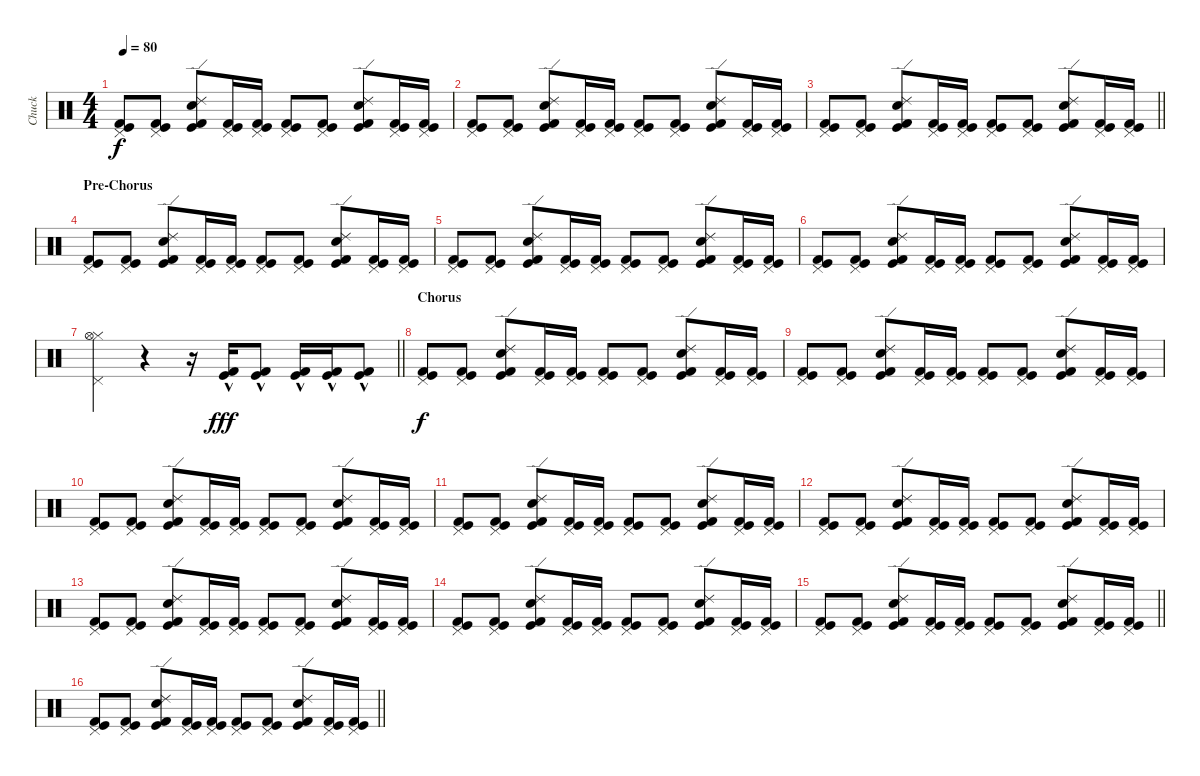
\track ("Chuck" "Chuck") {instrument percussion}
\staff {score}
\articulation defaults
\ts (4 4)
\tempo 80
\clef neutral
\ks c
("Pedal Hi-Hat (hit)" "Kick (hit)" "Kick (hit) 2").8{dy f} ("Pedal Hi-Hat (hit)" "Kick (hit)" "Kick (hit) 2").8 ("Ride (edge) 2" "Kick (hit)" "Kick (hit) 2" "Electric Snare (hit)").8 ("Pedal Hi-Hat (hit)" "Kick (hit)" "Kick (hit) 2").16 ("Pedal Hi-Hat (hit)" "Kick (hit)" "Kick (hit) 2").16 ("Pedal Hi-Hat (hit)" "Kick (hit)" "Kick (hit) 2").8 ("Pedal Hi-Hat (hit)" "Kick (hit)" "Kick (hit) 2").8 ("Ride (edge) 2" "Kick (hit)" "Kick (hit) 2" "Electric Snare (hit)").8 ("Pedal Hi-Hat (hit)" "Kick (hit)" "Kick (hit) 2").16 ("Pedal Hi-Hat (hit)" "Kick (hit)" "Kick (hit) 2").16 |
("Pedal Hi-Hat (hit)" "Kick (hit)" "Kick (hit) 2").8 ("Pedal Hi-Hat (hit)" "Kick (hit)" "Kick (hit) 2").8 ("Ride (edge) 2" "Kick (hit)" "Kick (hit) 2" "Electric Snare (hit)").8 ("Pedal Hi-Hat (hit)" "Kick (hit)" "Kick (hit) 2").16 ("Pedal Hi-Hat (hit)" "Kick (hit)" "Kick (hit) 2").16 ("Pedal Hi-Hat (hit)" "Kick (hit)" "Kick (hit) 2").8 ("Pedal Hi-Hat (hit)" "Kick (hit)" "Kick (hit) 2").8 ("Ride (edge) 2" "Kick (hit)" "Kick (hit) 2" "Electric Snare (hit)").8 ("Pedal Hi-Hat (hit)" "Kick (hit)" "Kick (hit) 2").16 ("Pedal Hi-Hat (hit)" "Kick (hit)" "Kick (hit) 2").16 |
\barLineRight lightlight
("Pedal Hi-Hat (hit)" "Kick (hit)" "Kick (hit) 2").8 ("Pedal Hi-Hat (hit)" "Kick (hit)" "Kick (hit) 2").8 ("Ride (edge) 2" "Kick (hit)" "Kick (hit) 2" "Electric Snare (hit)").8 ("Pedal Hi-Hat (hit)" "Kick (hit)" "Kick (hit) 2").16 ("Pedal Hi-Hat (hit)" "Kick (hit)" "Kick (hit) 2").16 ("Pedal Hi-Hat (hit)" "Kick (hit)" "Kick (hit) 2").8 ("Pedal Hi-Hat (hit)" "Kick (hit)" "Kick (hit) 2").8 ("Ride (edge) 2" "Kick (hit)" "Kick (hit) 2" "Electric Snare (hit)").8 ("Pedal Hi-Hat (hit)" "Kick (hit)" "Kick (hit) 2").16 ("Pedal Hi-Hat (hit)" "Kick (hit)" "Kick (hit) 2").16 |
\section ("" "Pre-Chorus")
("Pedal Hi-Hat (hit)" "Kick (hit)" "Kick (hit) 2").8 ("Pedal Hi-Hat (hit)" "Kick (hit)" "Kick (hit) 2").8 ("Ride (edge) 2" "Kick (hit)" "Kick (hit) 2" "Electric Snare (hit)").8 ("Pedal Hi-Hat (hit)" "Kick (hit)" "Kick (hit) 2").16 ("Pedal Hi-Hat (hit)" "Kick (hit)" "Kick (hit) 2").16 ("Pedal Hi-Hat (hit)" "Kick (hit)" "Kick (hit) 2").8 ("Pedal Hi-Hat (hit)" "Kick (hit)" "Kick (hit) 2").8 ("Ride (edge) 2" "Kick (hit)" "Kick (hit) 2" "Electric Snare (hit)").8 ("Pedal Hi-Hat (hit)" "Kick (hit)" "Kick (hit) 2").16 ("Pedal Hi-Hat (hit)" "Kick (hit)" "Kick (hit) 2").16 |
("Pedal Hi-Hat (hit)" "Kick (hit)" "Kick (hit) 2").8 ("Pedal Hi-Hat (hit)" "Kick (hit)" "Kick (hit) 2").8 ("Ride (edge) 2" "Kick (hit)" "Kick (hit) 2" "Electric Snare (hit)").8 ("Pedal Hi-Hat (hit)" "Kick (hit)" "Kick (hit) 2").16 ("Pedal Hi-Hat (hit)" "Kick (hit)" "Kick (hit) 2").16 ("Pedal Hi-Hat (hit)" "Kick (hit)" "Kick (hit) 2").8 ("Pedal Hi-Hat (hit)" "Kick (hit)" "Kick (hit) 2").8 ("Ride (edge) 2" "Kick (hit)" "Kick (hit) 2" "Electric Snare (hit)").8 ("Pedal Hi-Hat (hit)" "Kick (hit)" "Kick (hit) 2").16 ("Pedal Hi-Hat (hit)" "Kick (hit)" "Kick (hit) 2").16 |
("Pedal Hi-Hat (hit)" "Kick (hit)" "Kick (hit) 2").8 ("Pedal Hi-Hat (hit)" "Kick (hit)" "Kick (hit) 2").8 ("Ride (edge) 2" "Kick (hit)" "Kick (hit) 2" "Electric Snare (hit)").8 ("Pedal Hi-Hat (hit)" "Kick (hit)" "Kick (hit) 2").16 ("Pedal Hi-Hat (hit)" "Kick (hit)" "Kick (hit) 2").16 ("Pedal Hi-Hat (hit)" "Kick (hit)" "Kick (hit) 2").8 ("Pedal Hi-Hat (hit)" "Kick (hit)" "Kick (hit) 2").8 ("Ride (edge) 2" "Kick (hit)" "Kick (hit) 2" "Electric Snare (hit)").8 ("Pedal Hi-Hat (hit)" "Kick (hit)" "Kick (hit) 2").16 ("Pedal Hi-Hat (hit)" "Kick (hit)" "Kick (hit) 2").16 |
\barLineRight lightlight
("Hi-Hat (closed)" "Pedal Hi-Hat (hit)" "Hi-Hat (open)").4 r.4 r.16 ("Kick (hit)"{hac} "Kick (hit) 2"{hac}).16{dy fff} ("Kick (hit)"{hac} "Kick (hit) 2"{hac}).8 ("Kick (hit)"{hac} "Kick (hit) 2"{hac}).16 ("Kick (hit)"{hac} "Kick (hit) 2"{hac}).16 ("Kick (hit)"{hac} "Kick (hit) 2"{hac}).8 |
\section ("" "Chorus")
("Pedal Hi-Hat (hit)" "Kick (hit)" "Kick (hit) 2").8{dy f} ("Pedal Hi-Hat (hit)" "Kick (hit)" "Kick (hit) 2").8 ("Ride (edge) 2" "Kick (hit)" "Kick (hit) 2" "Electric Snare (hit)").8 ("Pedal Hi-Hat (hit)" "Kick (hit)" "Kick (hit) 2").16 ("Pedal Hi-Hat (hit)" "Kick (hit)" "Kick (hit) 2").16 ("Pedal Hi-Hat (hit)" "Kick (hit)" "Kick (hit) 2").8 ("Pedal Hi-Hat (hit)" "Kick (hit)" "Kick (hit) 2").8 ("Ride (edge) 2" "Kick (hit)" "Kick (hit) 2" "Electric Snare (hit)").8 ("Pedal Hi-Hat (hit)" "Kick (hit)" "Kick (hit) 2").16 ("Pedal Hi-Hat (hit)" "Kick (hit)" "Kick (hit) 2").16 |
("Pedal Hi-Hat (hit)" "Kick (hit)" "Kick (hit) 2").8 ("Pedal Hi-Hat (hit)" "Kick (hit)" "Kick (hit) 2").8 ("Ride (edge) 2" "Kick (hit)" "Kick (hit) 2" "Electric Snare (hit)").8 ("Pedal Hi-Hat (hit)" "Kick (hit)" "Kick (hit) 2").16 ("Pedal Hi-Hat (hit)" "Kick (hit)" "Kick (hit) 2").16 ("Pedal Hi-Hat (hit)" "Kick (hit)" "Kick (hit) 2").8 ("Pedal Hi-Hat (hit)" "Kick (hit)" "Kick (hit) 2").8 ("Ride (edge) 2" "Kick (hit)" "Kick (hit) 2" "Electric Snare (hit)").8 ("Pedal Hi-Hat (hit)" "Kick (hit)" "Kick (hit) 2").16 ("Pedal Hi-Hat (hit)" "Kick (hit)" "Kick (hit) 2").16 |
("Pedal Hi-Hat (hit)" "Kick (hit)" "Kick (hit) 2").8 ("Pedal Hi-Hat (hit)" "Kick (hit)" "Kick (hit) 2").8 ("Ride (edge) 2" "Kick (hit)" "Kick (hit) 2" "Electric Snare (hit)").8 ("Pedal Hi-Hat (hit)" "Kick (hit)" "Kick (hit) 2").16 ("Pedal Hi-Hat (hit)" "Kick (hit)" "Kick (hit) 2").16 ("Pedal Hi-Hat (hit)" "Kick (hit)" "Kick (hit) 2").8 ("Pedal Hi-Hat (hit)" "Kick (hit)" "Kick (hit) 2").8 ("Ride (edge) 2" "Kick (hit)" "Kick (hit) 2" "Electric Snare (hit)").8 ("Pedal Hi-Hat (hit)" "Kick (hit)" "Kick (hit) 2").16 ("Pedal Hi-Hat (hit)" "Kick (hit)" "Kick (hit) 2").16 |
("Pedal Hi-Hat (hit)" "Kick (hit)" "Kick (hit) 2").8 ("Pedal Hi-Hat (hit)" "Kick (hit)" "Kick (hit) 2").8 ("Ride (edge) 2" "Kick (hit)" "Kick (hit) 2" "Electric Snare (hit)").8 ("Pedal Hi-Hat (hit)" "Kick (hit)" "Kick (hit) 2").16 ("Pedal Hi-Hat (hit)" "Kick (hit)" "Kick (hit) 2").16 ("Pedal Hi-Hat (hit)" "Kick (hit)" "Kick (hit) 2").8 ("Pedal Hi-Hat (hit)" "Kick (hit)" "Kick (hit) 2").8 ("Ride (edge) 2" "Kick (hit)" "Kick (hit) 2" "Electric Snare (hit)").8 ("Pedal Hi-Hat (hit)" "Kick (hit)" "Kick (hit) 2").16 ("Pedal Hi-Hat (hit)" "Kick (hit)" "Kick (hit) 2").16 |
("Pedal Hi-Hat (hit)" "Kick (hit)" "Kick (hit) 2").8 ("Pedal Hi-Hat (hit)" "Kick (hit)" "Kick (hit) 2").8 ("Ride (edge) 2" "Kick (hit)" "Kick (hit) 2" "Electric Snare (hit)").8 ("Pedal Hi-Hat (hit)" "Kick (hit)" "Kick (hit) 2").16 ("Pedal Hi-Hat (hit)" "Kick (hit)" "Kick (hit) 2").16 ("Pedal Hi-Hat (hit)" "Kick (hit)" "Kick (hit) 2").8 ("Pedal Hi-Hat (hit)" "Kick (hit)" "Kick (hit) 2").8 ("Ride (edge) 2" "Kick (hit)" "Kick (hit) 2" "Electric Snare (hit)").8 ("Pedal Hi-Hat (hit)" "Kick (hit)" "Kick (hit) 2").16 ("Pedal Hi-Hat (hit)" "Kick (hit)" "Kick (hit) 2").16 |
("Pedal Hi-Hat (hit)" "Kick (hit)" "Kick (hit) 2").8 ("Pedal Hi-Hat (hit)" "Kick (hit)" "Kick (hit) 2").8 ("Ride (edge) 2" "Kick (hit)" "Kick (hit) 2" "Electric Snare (hit)").8 ("Pedal Hi-Hat (hit)" "Kick (hit)" "Kick (hit) 2").16 ("Pedal Hi-Hat (hit)" "Kick (hit)" "Kick (hit) 2").16 ("Pedal Hi-Hat (hit)" "Kick (hit)" "Kick (hit) 2").8 ("Pedal Hi-Hat (hit)" "Kick (hit)" "Kick (hit) 2").8 ("Ride (edge) 2" "Kick (hit)" "Kick (hit) 2" "Electric Snare (hit)").8 ("Pedal Hi-Hat (hit)" "Kick (hit)" "Kick (hit) 2").16 ("Pedal Hi-Hat (hit)" "Kick (hit)" "Kick (hit) 2").16 |
("Pedal Hi-Hat (hit)" "Kick (hit)" "Kick (hit) 2").8 ("Pedal Hi-Hat (hit)" "Kick (hit)" "Kick (hit) 2").8 ("Ride (edge) 2" "Kick (hit)" "Kick (hit) 2" "Electric Snare (hit)").8 ("Pedal Hi-Hat (hit)" "Kick (hit)" "Kick (hit) 2").16 ("Pedal Hi-Hat (hit)" "Kick (hit)" "Kick (hit) 2").16 ("Pedal Hi-Hat (hit)" "Kick (hit)" "Kick (hit) 2").8 ("Pedal Hi-Hat (hit)" "Kick (hit)" "Kick (hit) 2").8 ("Ride (edge) 2" "Kick (hit)" "Kick (hit) 2" "Electric Snare (hit)").8 ("Pedal Hi-Hat (hit)" "Kick (hit)" "Kick (hit) 2").16 ("Pedal Hi-Hat (hit)" "Kick (hit)" "Kick (hit) 2").16 |
\barLineRight lightlight
("Pedal Hi-Hat (hit)" "Kick (hit)" "Kick (hit) 2").8 ("Pedal Hi-Hat (hit)" "Kick (hit)" "Kick (hit) 2").8 ("Ride (edge) 2" "Kick (hit)" "Kick (hit) 2" "Electric Snare (hit)").8 ("Pedal Hi-Hat (hit)" "Kick (hit)" "Kick (hit) 2").16 ("Pedal Hi-Hat (hit)" "Kick (hit)" "Kick (hit) 2").16 ("Pedal Hi-Hat (hit)" "Kick (hit)" "Kick (hit) 2").8 ("Pedal Hi-Hat (hit)" "Kick (hit)" "Kick (hit) 2").8 ("Ride (edge) 2" "Kick (hit)" "Kick (hit) 2" "Electric Snare (hit)").8 ("Pedal Hi-Hat (hit)" "Kick (hit)" "Kick (hit) 2").16 ("Pedal Hi-Hat (hit)" "Kick (hit)" "Kick (hit) 2").16 |
\barLineRight lightlight
("Pedal Hi-Hat (hit)" "Kick (hit)" "Kick (hit) 2").8 ("Pedal Hi-Hat (hit)" "Kick (hit)" "Kick (hit) 2").8 ("Ride (edge) 2" "Kick (hit)" "Kick (hit) 2" "Electric Snare (hit)").8 ("Pedal Hi-Hat (hit)" "Kick (hit)" "Kick (hit) 2").16 ("Pedal Hi-Hat (hit)" "Kick (hit)" "Kick (hit) 2").16 ("Pedal Hi-Hat (hit)" "Kick (hit)" "Kick (hit) 2").8 ("Pedal Hi-Hat (hit)" "Kick (hit)" "Kick (hit) 2").8 ("Ride (edge) 2" "Kick (hit)" "Kick (hit) 2" "Electric Snare (hit)").8 ("Pedal Hi-Hat (hit)" "Kick (hit)" "Kick (hit) 2").16 ("Pedal Hi-Hat (hit)" "Kick (hit)" "Kick (hit) 2").16
